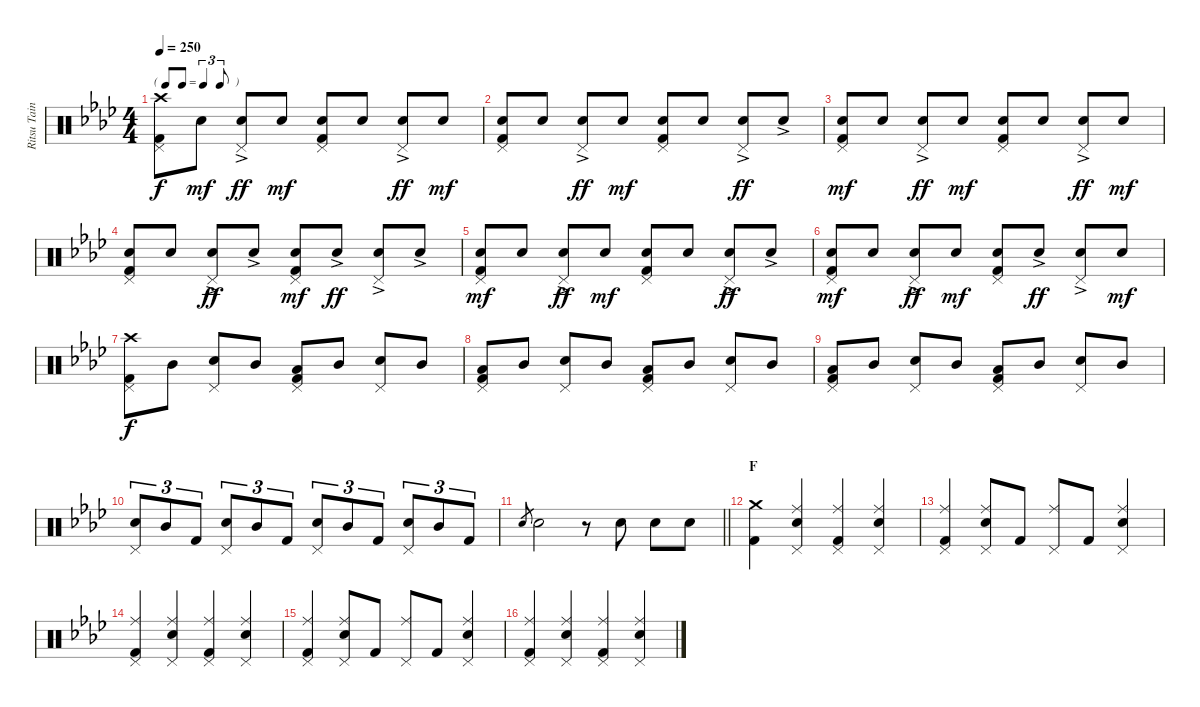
\track ("Ritsu Tainaka" "Ritsu Tain") {instrument percussion}
\staff {score}
\articulation defaults
\ts (4 4)
\tf triplet8th
\tempo 250
\clef neutral
\ks ab
("Crash high (hit)" "Pedal Hi-Hat (hit)" "Kick (hit) 2").8{dy f} "Electric Snare (hit)".8{dy mf} ("Pedal Hi-Hat (hit)" "Electric Snare (hit)"{ac}).8{dy ff} "Electric Snare (hit)".8{dy mf} ("Pedal Hi-Hat (hit)" "Electric Snare (hit)" "Kick (hit) 2").8 "Electric Snare (hit)".8 ("Pedal Hi-Hat (hit)" "Electric Snare (hit)"{ac}).8{dy ff} "Electric Snare (hit)".8{dy mf} |
("Pedal Hi-Hat (hit)" "Electric Snare (hit)" "Kick (hit) 2").8 "Electric Snare (hit)".8 ("Pedal Hi-Hat (hit)" "Electric Snare (hit)"{ac}).8{dy ff} "Electric Snare (hit)".8{dy mf} ("Pedal Hi-Hat (hit)" "Electric Snare (hit)" "Kick (hit) 2").8 "Electric Snare (hit)".8 ("Pedal Hi-Hat (hit)" "Electric Snare (hit)"{ac}).8{dy ff} "Electric Snare (hit)"{ac}.8 |
("Pedal Hi-Hat (hit)" "Electric Snare (hit)" "Kick (hit) 2").8{dy mf} "Electric Snare (hit)".8 ("Pedal Hi-Hat (hit)" "Electric Snare (hit)"{ac}).8{dy ff} "Electric Snare (hit)".8{dy mf} ("Pedal Hi-Hat (hit)" "Electric Snare (hit)" "Kick (hit) 2").8 "Electric Snare (hit)".8 ("Pedal Hi-Hat (hit)" "Electric Snare (hit)"{ac}).8{dy ff} "Electric Snare (hit)".8{dy mf} |
("Pedal Hi-Hat (hit)" "Electric Snare (hit)" "Kick (hit) 2").8 "Electric Snare (hit)".8 ("Pedal Hi-Hat (hit)" "Electric Snare (hit)"{ac}).8{dy ff} "Electric Snare (hit)"{ac}.8 ("Pedal Hi-Hat (hit)" "Electric Snare (hit)" "Kick (hit) 2").8{dy mf} "Electric Snare (hit)"{ac}.8{dy ff} ("Pedal Hi-Hat (hit)" "Electric Snare (hit)"{ac}).8 "Electric Snare (hit)"{ac}.8 |
("Pedal Hi-Hat (hit)" "Electric Snare (hit)" "Kick (hit) 2").8{dy mf} "Electric Snare (hit)".8 ("Pedal Hi-Hat (hit)" "Electric Snare (hit)"{ac}).8{dy ff} "Electric Snare (hit)".8{dy mf} ("Pedal Hi-Hat (hit)" "Electric Snare (hit)" "Kick (hit) 2").8 "Electric Snare (hit)".8 ("Pedal Hi-Hat (hit)" "Electric Snare (hit)"{ac}).8{dy ff} "Electric Snare (hit)"{ac}.8 |
("Pedal Hi-Hat (hit)" "Electric Snare (hit)" "Kick (hit) 2").8{dy mf} "Electric Snare (hit)".8 ("Pedal Hi-Hat (hit)" "Electric Snare (hit)"{ac}).8{dy ff} "Electric Snare (hit)".8{dy mf} ("Pedal Hi-Hat (hit)" "Electric Snare (hit)" "Kick (hit) 2").8 "Electric Snare (hit)"{ac}.8{dy ff} ("Pedal Hi-Hat (hit)" "Electric Snare (hit)"{ac}).8 "Electric Snare (hit)".8{dy mf} |
("Crash high (hit)" "Pedal Hi-Hat (hit)" "Kick (hit) 2").8{dy f} "Mid Tom (hit)".8 ("Pedal Hi-Hat (hit)" "Electric Snare (hit)").8 "Mid Tom (hit)".8 ("Pedal Hi-Hat (hit)" "Low Floor Tom (hit)" "Kick (hit) 2").8 "Mid Tom (hit)".8 ("Pedal Hi-Hat (hit)" "Electric Snare (hit)").8 "Mid Tom (hit)".8 |
("Pedal Hi-Hat (hit)" "Low Floor Tom (hit)" "Kick (hit) 2").8 "Mid Tom (hit)".8 ("Pedal Hi-Hat (hit)" "Electric Snare (hit)").8 "Mid Tom (hit)".8 ("Pedal Hi-Hat (hit)" "Low Floor Tom (hit)" "Kick (hit) 2").8 "Mid Tom (hit)".8 ("Pedal Hi-Hat (hit)" "Electric Snare (hit)").8 "Mid Tom (hit)".8 |
("Pedal Hi-Hat (hit)" "Low Floor Tom (hit)" "Kick (hit) 2").8 "Mid Tom (hit)".8 ("Pedal Hi-Hat (hit)" "Electric Snare (hit)").8 "Mid Tom (hit)".8 ("Pedal Hi-Hat (hit)" "Low Floor Tom (hit)" "Kick (hit) 2").8 "Mid Tom (hit)".8 ("Pedal Hi-Hat (hit)" "Electric Snare (hit)").8 "Mid Tom (hit)".8 |
("Pedal Hi-Hat (hit)" "Electric Snare (hit)").8{tu (3 2)} "Mid Tom (hit)".8{tu (3 2)} "Kick (hit) 2".8{tu (3 2)} ("Pedal Hi-Hat (hit)" "Electric Snare (hit)").8{tu (3 2)} "Mid Tom (hit)".8{tu (3 2)} "Kick (hit) 2".8{tu (3 2)} ("Pedal Hi-Hat (hit)" "Electric Snare (hit)").8{tu (3 2)} "Mid Tom (hit)".8{tu (3 2)} "Kick (hit) 2".8{tu (3 2)} ("Pedal Hi-Hat (hit)" "Electric Snare (hit)").8{tu (3 2)} "Mid Tom (hit)".8{tu (3 2)} "Kick (hit) 2".8{tu (3 2)} |
\barLineRight lightlight "Electric Snare (hit)".8{gr} "Electric Snare (hit)".2
r.8 "Electric Snare (hit)".8 "Electric Snare (hit)".8 "Electric Snare (hit)".8 |
\section ("" "F")
("Crash medium (hit)" "Kick (hit) 2").4 ("Ride (middle)" "Pedal Hi-Hat (hit)" "Electric Snare (hit)").4 ("Ride (middle)" "Pedal Hi-Hat (hit)" "Kick (hit) 2").4 ("Ride (middle)" "Pedal Hi-Hat (hit)" "Electric Snare (hit)").4 |
("Ride (middle)" "Pedal Hi-Hat (hit)" "Kick (hit) 2").4 ("Ride (middle)" "Pedal Hi-Hat (hit)" "Electric Snare (hit)").8 "Kick (hit) 2".8 ("Ride (middle)" "Pedal Hi-Hat (hit)").8 "Kick (hit) 2".8 ("Ride (middle)" "Pedal Hi-Hat (hit)" "Electric Snare (hit)").4 |
("Ride (middle)" "Pedal Hi-Hat (hit)" "Kick (hit) 2").4 ("Ride (middle)" "Pedal Hi-Hat (hit)" "Electric Snare (hit)").4 ("Ride (middle)" "Pedal Hi-Hat (hit)" "Kick (hit) 2").4 ("Ride (middle)" "Pedal Hi-Hat (hit)" "Electric Snare (hit)").4 |
("Ride (middle)" "Pedal Hi-Hat (hit)" "Kick (hit) 2").4 ("Ride (middle)" "Pedal Hi-Hat (hit)" "Electric Snare (hit)").8 "Kick (hit) 2".8 ("Ride (middle)" "Pedal Hi-Hat (hit)").8 "Kick (hit) 2".8 ("Ride (middle)" "Pedal Hi-Hat (hit)" "Electric Snare (hit)").4 |
("Ride (middle)" "Pedal Hi-Hat (hit)" "Kick (hit) 2").4 ("Ride (middle)" "Pedal Hi-Hat (hit)" "Electric Snare (hit)").4 ("Ride (middle)" "Pedal Hi-Hat (hit)" "Kick (hit) 2").4 ("Ride (middle)" "Pedal Hi-Hat (hit)" "Electric Snare (hit)").4
